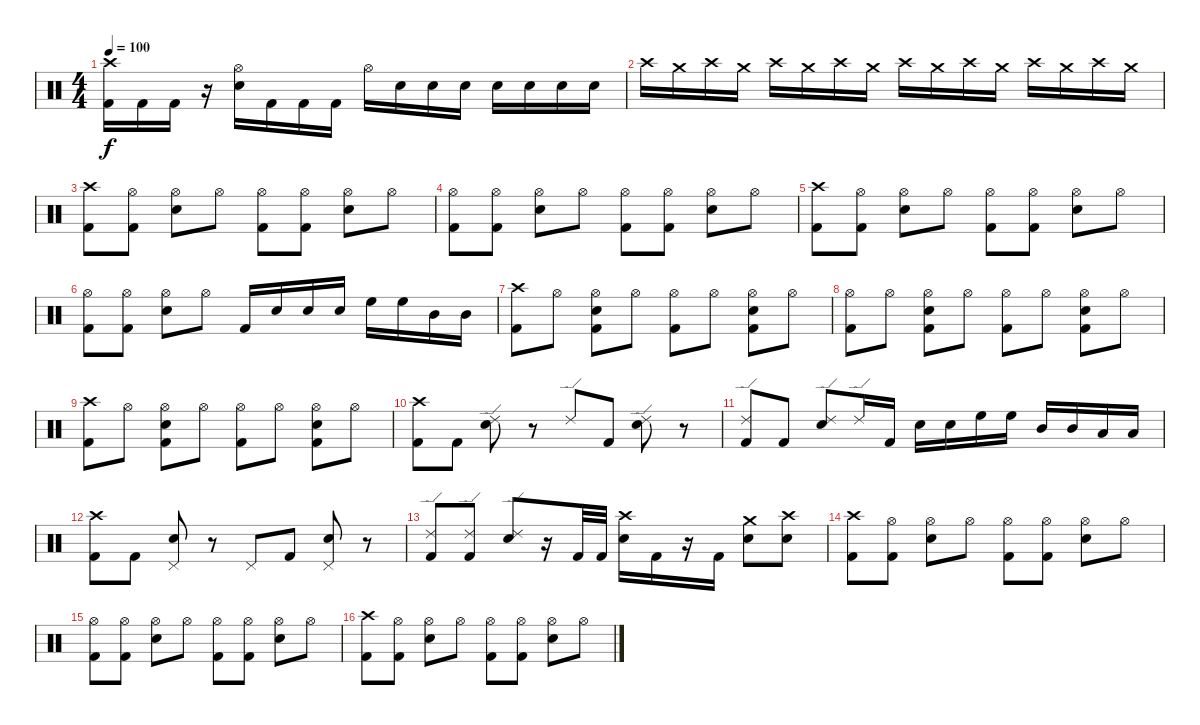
\track "" {instrument percussion}
\staff {score}
\articulation defaults
\ts (4 4)
\tempo 100
\clef neutral
\ks c
("Crash high (hit)" "Kick (hit) 2").16{dy f} "Kick (hit) 2".16 "Kick (hit) 2".16 r.16 ("Hi-Hat (open)" "Electric Snare (hit)").16 "Kick (hit) 2".16 "Kick (hit) 2".16 "Kick (hit) 2".16 "Hi-Hat (open)".16 "Electric Snare (hit)".16 "Electric Snare (hit)".16 "Electric Snare (hit)".16 "Electric Snare (hit)".16 "Electric Snare (hit)".16 "Electric Snare (hit)".16 "Electric Snare (hit)".16 |
"Crash high (hit)".16{volume 0} "Crash medium (hit)".16{volume 0} "Crash high (hit)".16{volume 1} "Crash medium (hit)".16{volume 1} "Crash high (hit)".16{volume 2} "Crash medium (hit)".16{volume 2} "Crash high (hit)".16{volume 3} "Crash medium (hit)".16{volume 3} "Crash high (hit)".16{volume 4} "Crash medium (hit)".16{volume 4} "Crash high (hit)".16{volume 5} "Crash medium (hit)".16{volume 8} "Crash high (hit)".16{volume 11} "Crash medium (hit)".16{volume 10} "Crash high (hit)".16{volume 13} "Crash medium (hit)".16{volume 16} |
("Crash high (hit)" "Kick (hit) 2").8 ("Hi-Hat (open)" "Kick (hit) 2").8 ("Hi-Hat (open)" "Electric Snare (hit)").8 "Hi-Hat (open)".8 ("Hi-Hat (open)" "Kick (hit) 2").8 ("Hi-Hat (open)" "Kick (hit) 2").8 ("Hi-Hat (open)" "Electric Snare (hit)").8 "Hi-Hat (open)".8 |
("Hi-Hat (open)" "Kick (hit) 2").8 ("Hi-Hat (open)" "Kick (hit) 2").8 ("Hi-Hat (open)" "Electric Snare (hit)").8 "Hi-Hat (open)".8 ("Hi-Hat (open)" "Kick (hit) 2").8 ("Hi-Hat (open)" "Kick (hit) 2").8 ("Hi-Hat (open)" "Electric Snare (hit)").8 "Hi-Hat (open)".8 |
("Crash high (hit)" "Kick (hit) 2").8 ("Hi-Hat (open)" "Kick (hit) 2").8 ("Hi-Hat (open)" "Electric Snare (hit)").8 "Hi-Hat (open)".8 ("Hi-Hat (open)" "Kick (hit) 2").8 ("Hi-Hat (open)" "Kick (hit) 2").8 ("Hi-Hat (open)" "Electric Snare (hit)").8 "Hi-Hat (open)".8 |
("Hi-Hat (open)" "Kick (hit) 2").8 ("Hi-Hat (open)" "Kick (hit) 2").8 ("Hi-Hat (open)" "Electric Snare (hit)").8 "Hi-Hat (open)".8 "Kick (hit) 2".16 "Electric Snare (hit)".16 "Electric Snare (hit)".16 "Electric Snare (hit)".16 "High Floor Tom (hit)".16 "High Floor Tom (hit)".16 "Mid Tom (hit)".16 "Mid Tom (hit)".16 |
("Crash high (hit)" "Kick (hit) 2").8 "Hi-Hat (open)".8 ("Hi-Hat (open)" "Electric Snare (hit)" "Kick (hit) 2").8 "Hi-Hat (open)".8 ("Hi-Hat (open)" "Kick (hit) 2").8 "Hi-Hat (open)".8 ("Hi-Hat (open)" "Electric Snare (hit)" "Kick (hit) 2").8 "Hi-Hat (open)".8 |
("Hi-Hat (open)" "Kick (hit) 2").8 "Hi-Hat (open)".8 ("Hi-Hat (open)" "Electric Snare (hit)" "Kick (hit) 2").8 "Hi-Hat (open)".8 ("Hi-Hat (open)" "Kick (hit) 2").8 "Hi-Hat (open)".8 ("Hi-Hat (open)" "Electric Snare (hit)" "Kick (hit) 2").8 "Hi-Hat (open)".8 |
("Crash high (hit)" "Kick (hit) 2").8 "Hi-Hat (open)".8 ("Hi-Hat (open)" "Electric Snare (hit)" "Kick (hit) 2").8 "Hi-Hat (open)".8 ("Hi-Hat (open)" "Kick (hit) 2").8 "Hi-Hat (open)".8 ("Hi-Hat (open)" "Electric Snare (hit)" "Kick (hit) 2").8 "Hi-Hat (open)".8 |
("Crash high (hit)" "Kick (hit) 2").8 "Kick (hit) 2".8 ("Ride (edge) 2" "Electric Snare (hit)").8 r.8 "Ride (edge) 2".8 "Kick (hit) 2".8 ("Ride (edge) 2" "Electric Snare (hit)").8 r.8 |
("Ride (edge) 2" "Kick (hit) 2").8 "Kick (hit) 2".8 ("Ride (edge) 2" "Electric Snare (hit)").8 "Ride (edge) 2".16 "Kick (hit) 2".16 "Electric Snare (hit)".16 "Electric Snare (hit)".16 "High Floor Tom (hit)".16{balance 16} "High Floor Tom (hit)".16{balance 16} "Mid Tom (hit)".16{balance 11} "Mid Tom (hit)".16{balance 11} "Low Tom (hit)".16{balance 8} "Low Tom (hit)".16{balance 8} |
("Crash high (hit)" "Kick (hit) 2").8{balance 8} "Kick (hit) 2".8 ("Pedal Hi-Hat (hit)" "Electric Snare (hit)").8 r.8 "Pedal Hi-Hat (hit)".8 "Kick (hit) 2".8 ("Pedal Hi-Hat (hit)" "Electric Snare (hit)").8 r.8 |
("Ride (edge) 2" "Kick (hit) 2").8{balance 8} ("Ride (edge) 2" "Kick (hit) 2").8 ("Ride (edge) 2" "Electric Snare (hit)").8 r.16 "Kick (hit) 2".32 "Kick (hit) 2".32 ("Crash high (hit)" "Electric Snare (hit)").16 "Kick (hit) 2".16 r.16 "Kick (hit) 2".16 ("Crash medium (hit)" "Electric Snare (hit)").8 ("Crash high (hit)" "Electric Snare (hit)").8 |
("Crash high (hit)" "Kick (hit) 2").8 ("Hi-Hat (open)" "Kick (hit) 2").8 ("Hi-Hat (open)" "Electric Snare (hit)").8 "Hi-Hat (open)".8 ("Hi-Hat (open)" "Kick (hit) 2").8 ("Hi-Hat (open)" "Kick (hit) 2").8 ("Hi-Hat (open)" "Electric Snare (hit)").8 "Hi-Hat (open)".8 |
("Hi-Hat (open)" "Kick (hit) 2").8 ("Hi-Hat (open)" "Kick (hit) 2").8 ("Hi-Hat (open)" "Electric Snare (hit)").8 "Hi-Hat (open)".8 ("Hi-Hat (open)" "Kick (hit) 2").8 ("Hi-Hat (open)" "Kick (hit) 2").8 ("Hi-Hat (open)" "Electric Snare (hit)").8 "Hi-Hat (open)".8 |
("Crash high (hit)" "Kick (hit) 2").8 ("Hi-Hat (open)" "Kick (hit) 2").8 ("Hi-Hat (open)" "Electric Snare (hit)").8 "Hi-Hat (open)".8 ("Hi-Hat (open)" "Kick (hit) 2").8 ("Hi-Hat (open)" "Kick (hit) 2").8 ("Hi-Hat (open)" "Electric Snare (hit)").8 "Hi-Hat (open)".8
